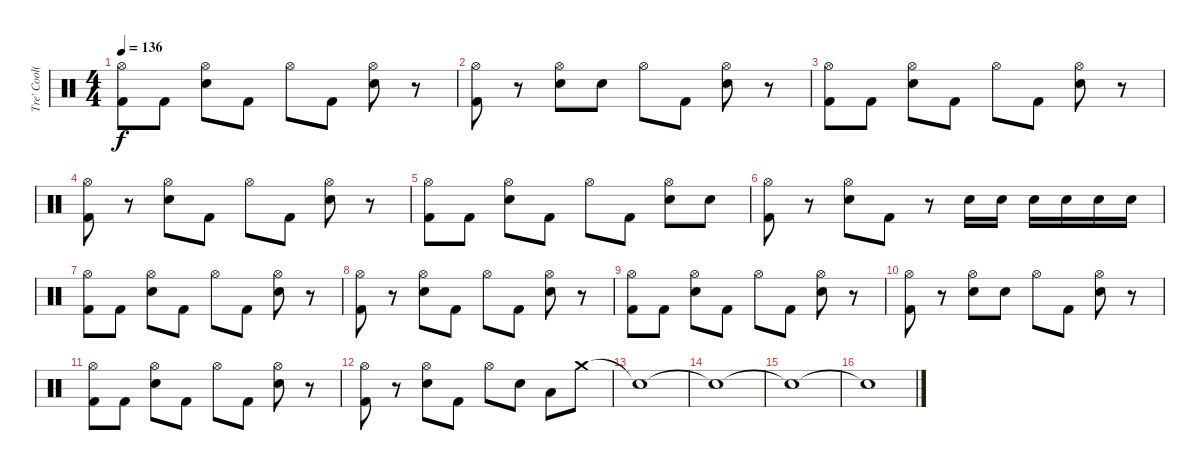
\track ("Tre' Cool(Drums)" "Tre' Cool(") {instrument percussion}
\staff {score}
\articulation defaults
\ts (4 4)
\tempo 136
\clef neutral
\ks c
("Kick (hit) 2" "Hi-Hat (open)").8{dy f} "Kick (hit) 2".8 ("Electric Snare (hit)" "Hi-Hat (open)").8 "Kick (hit) 2".8 "Hi-Hat (open)".8 "Kick (hit) 2".8 ("Electric Snare (hit)" "Hi-Hat (open)").8 r.8 |
("Kick (hit) 2" "Hi-Hat (open)").8 r.8 ("Electric Snare (hit)" "Hi-Hat (open)").8 "Electric Snare (hit)".8 "Hi-Hat (open)".8 "Kick (hit) 2".8 ("Electric Snare (hit)" "Hi-Hat (open)").8 r.8 |
("Kick (hit) 2" "Hi-Hat (open)").8 "Kick (hit) 2".8 ("Electric Snare (hit)" "Hi-Hat (open)").8 "Kick (hit) 2".8 "Hi-Hat (open)".8 "Kick (hit) 2".8 ("Electric Snare (hit)" "Hi-Hat (open)").8 r.8 |
("Kick (hit) 2" "Hi-Hat (open)").8 r.8 ("Electric Snare (hit)" "Hi-Hat (open)").8 "Kick (hit) 2".8 "Hi-Hat (open)".8 "Kick (hit) 2".8 ("Electric Snare (hit)" "Hi-Hat (open)").8 r.8 |
("Kick (hit) 2" "Hi-Hat (open)").8 "Kick (hit) 2".8 ("Electric Snare (hit)" "Hi-Hat (open)").8 "Kick (hit) 2".8 "Hi-Hat (open)".8 "Kick (hit) 2".8 ("Electric Snare (hit)" "Hi-Hat (open)").8 "Electric Snare (hit)".8 |
("Kick (hit) 2" "Hi-Hat (open)").8 r.8 ("Electric Snare (hit)" "Hi-Hat (open)").8 "Kick (hit) 2".8 r.8 "Electric Snare (hit)".16 "Electric Snare (hit)".16 "Electric Snare (hit)".16 "Electric Snare (hit)".16 "Electric Snare (hit)".16 "Electric Snare (hit)".16 |
("Kick (hit) 2" "Hi-Hat (open)").8 "Kick (hit) 2".8 ("Electric Snare (hit)" "Hi-Hat (open)").8 "Kick (hit) 2".8 "Hi-Hat (open)".8 "Kick (hit) 2".8 ("Electric Snare (hit)" "Hi-Hat (open)").8 r.8 |
("Kick (hit) 2" "Hi-Hat (open)").8 r.8 ("Electric Snare (hit)" "Hi-Hat (open)").8 "Kick (hit) 2".8 "Hi-Hat (open)".8 "Kick (hit) 2".8 ("Electric Snare (hit)" "Hi-Hat (open)").8 r.8 |
("Kick (hit) 2" "Hi-Hat (open)").8 "Kick (hit) 2".8 ("Electric Snare (hit)" "Hi-Hat (open)").8 "Kick (hit) 2".8 "Hi-Hat (open)".8 "Kick (hit) 2".8 ("Electric Snare (hit)" "Hi-Hat (open)").8 r.8 |
("Kick (hit) 2" "Hi-Hat (open)").8 r.8 ("Electric Snare (hit)" "Hi-Hat (open)").8 "Electric Snare (hit)".8 "Hi-Hat (open)".8 "Kick (hit) 2".8 ("Electric Snare (hit)" "Hi-Hat (open)").8 r.8 |
("Kick (hit) 2" "Hi-Hat (open)").8 "Kick (hit) 2".8 ("Electric Snare (hit)" "Hi-Hat (open)").8 "Kick (hit) 2".8 "Hi-Hat (open)".8 "Kick (hit) 2".8 ("Electric Snare (hit)" "Hi-Hat (open)").8 r.8 |
("Kick (hit) 2" "Hi-Hat (open)").8 r.8 ("Electric Snare (hit)" "Hi-Hat (open)").8 "Kick (hit) 2".8 "Hi-Hat (open)".8 "Electric Snare (hit)".8 "Low Tom (hit)".8 "Crash medium (hit)".8 |
"Snare (hit)"{t}.1 |
"Snare (hit)"{t}.1 |
"Snare (hit)"{t}.1 |
"Snare (hit)"{t}.1
